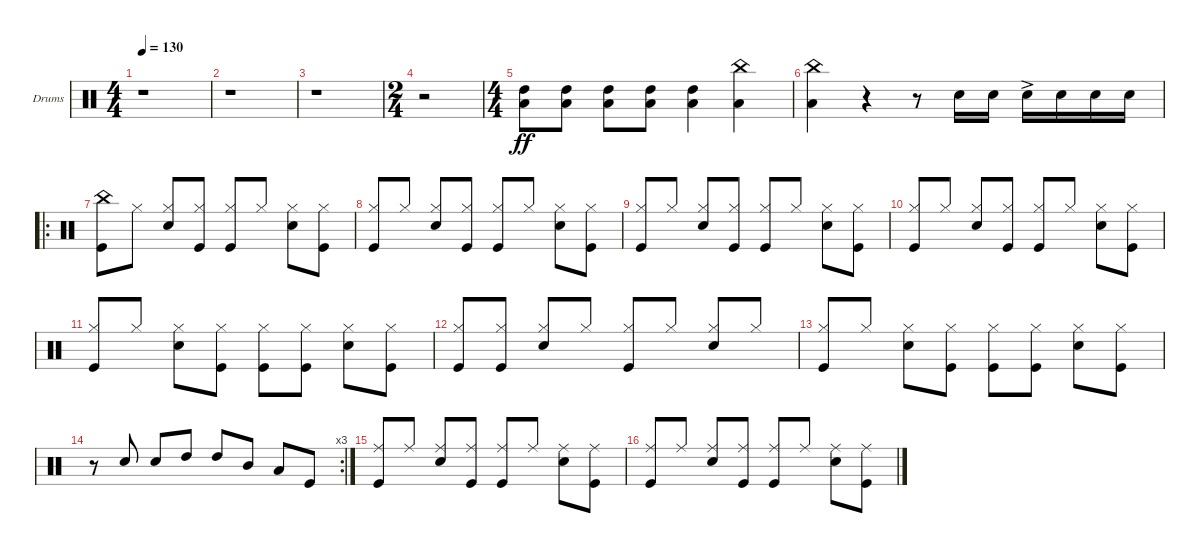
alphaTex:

\defaultSystemsLayout 4
\bracketExtendMode groupsimilarinstruments
\firstSystemTrackNameOrientation horizontal
\otherSystemsTrackNameOrientation horizontal
\track ("Drumkit" "Drums") {instrument percussion}
\staff {score}
\articulation defaults
\ts (4 4)
\tempo 130
\clef neutral
\scale
0.472222
\ks c
r.1{dy ff} |
\scale
0.263889 r.1 |
\scale
0.263889 r.1 |
\ts (2 4)
\scale
0.390805 r.2 |
\ts (4 4)
\scale
0.390805 ("Low Tom (hit)" "High Tom (hit)").8 ("Low Tom (hit)" "High Tom (hit)").8 ("Low Tom (hit)" "High Tom (hit)").8 ("Low Tom (hit)" "High Tom (hit)").8 ("Low Tom (hit)" "High Tom (hit)").4 ("Low Tom (hit)" "China (hit)").4 |
\scale
0.218391 ("China (hit)" "Low Tom (hit)").4 r.4 r.8 "Snare (hit) 2".16 "Snare (hit) 2".16 "Snare (hit) 2"{ac}.16 "Snare (hit) 2".16 "Snare (hit) 2".16 "Snare (hit) 2".16 |
\ro
\scale
0.377049 ("Kick (hit)" "China (hit)").8 "Hi-Hat (closed)".8 ("Hi-Hat (closed)" "Snare (hit) 2").8 ("Hi-Hat (closed)" "Kick (hit)").8 ("Hi-Hat (closed)" "Kick (hit)").8{beam invert} "Hi-Hat (closed)".8 ("Hi-Hat (closed)" "Snare (hit) 2").8 ("Hi-Hat (closed)" "Kick (hit)").8 |
\scale
0.311475 ("Hi-Hat (closed)" "Kick (hit)").8{beam invert} "Hi-Hat (closed)".8 ("Hi-Hat (closed)" "Snare (hit) 2").8 ("Hi-Hat (closed)" "Kick (hit)").8 ("Hi-Hat (closed)" "Kick (hit)").8{beam invert} "Hi-Hat (closed)".8 ("Hi-Hat (closed)" "Snare (hit) 2").8 ("Hi-Hat (closed)" "Kick (hit)").8 |
\scale
0.311475 ("Hi-Hat (closed)" "Kick (hit)").8{beam invert} "Hi-Hat (closed)".8 ("Hi-Hat (closed)" "Snare (hit) 2").8 ("Hi-Hat (closed)" "Kick (hit)").8 ("Hi-Hat (closed)" "Kick (hit)").8{beam invert} "Hi-Hat (closed)".8 ("Hi-Hat (closed)" "Snare (hit) 2").8 ("Hi-Hat (closed)" "Kick (hit)").8 |
\scale
0.333333 ("Hi-Hat (closed)" "Kick (hit)").8{beam invert} "Hi-Hat (closed)".8 ("Hi-Hat (closed)" "Snare (hit) 2").8 ("Hi-Hat (closed)" "Kick (hit)").8 ("Hi-Hat (closed)" "Kick (hit)").8{beam invert} "Hi-Hat (closed)".8 ("Hi-Hat (closed)" "Snare (hit) 2").8 ("Hi-Hat (closed)" "Kick (hit)").8 |
\scale
0.333333 ("Kick (hit)" "Hi-Hat (closed)").8{beam invert} "Hi-Hat (closed)".8 ("Snare (hit) 2" "Hi-Hat (closed)").8 ("Kick (hit)" "Hi-Hat (closed)").8 ("Kick (hit)" "Hi-Hat (closed)").8 ("Kick (hit)" "Hi-Hat (closed)").8 ("Snare (hit) 2" "Hi-Hat (closed)").8 ("Kick (hit)" "Hi-Hat (closed)").8 |
\scale
0.333333 ("Kick (hit)" "Hi-Hat (closed)").8 ("Kick (hit)" "Hi-Hat (closed)").8 ("Snare (hit) 2" "Hi-Hat (closed)").8{beam invert} "Hi-Hat (closed)".8 ("Hi-Hat (closed)" "Kick (hit)").8{beam invert} "Hi-Hat (closed)".8 ("Hi-Hat (closed)" "Snare (hit) 2").8{beam invert} "Hi-Hat (closed)".8 |
\scale
0.322034 ("Kick (hit)" "Hi-Hat (closed)").8{beam invert} "Hi-Hat (closed)".8 ("Snare (hit) 2" "Hi-Hat (closed)").8 ("Kick (hit)" "Hi-Hat (closed)").8 ("Kick (hit)" "Hi-Hat (closed)").8 ("Kick (hit)" "Hi-Hat (closed)").8 ("Snare (hit) 2" "Hi-Hat (closed)").8 ("Kick (hit)" "Hi-Hat (closed)").8 |
\rc 3
\scale
0.355932 r.8 "Snare (hit) 2".8{beam invert} "Snare (hit) 2".8{beam invert} "High Tom (hit)".8 "High Tom (hit)".8{beam invert} "Mid Tom (hit)".8 "Low Tom (hit)".8 "Kick (hit)".8 |
\scale
0.322034 ("Ride (middle)" "Kick (hit)").8{beam invert} "Ride (middle)".8 ("Ride (middle)" "Snare (hit) 2").8 ("Ride (middle)" "Kick (hit)").8 ("Ride (middle)" "Kick (hit)").8{beam invert} "Ride (middle)".8 ("Ride (middle)" "Snare (hit) 2").8 ("Ride (middle)" "Kick (hit)").8 |
\scale
0.333333 ("Ride (middle)" "Kick (hit)").8{beam invert} "Ride (middle)".8 ("Ride (middle)" "Snare (hit) 2").8 ("Ride (middle)" "Kick (hit)").8 ("Ride (middle)" "Kick (hit)").8{beam invert} "Ride (middle)".8 ("Ride (middle)" "Snare (hit) 2").8 ("Ride (middle)" "Kick (hit)").8
